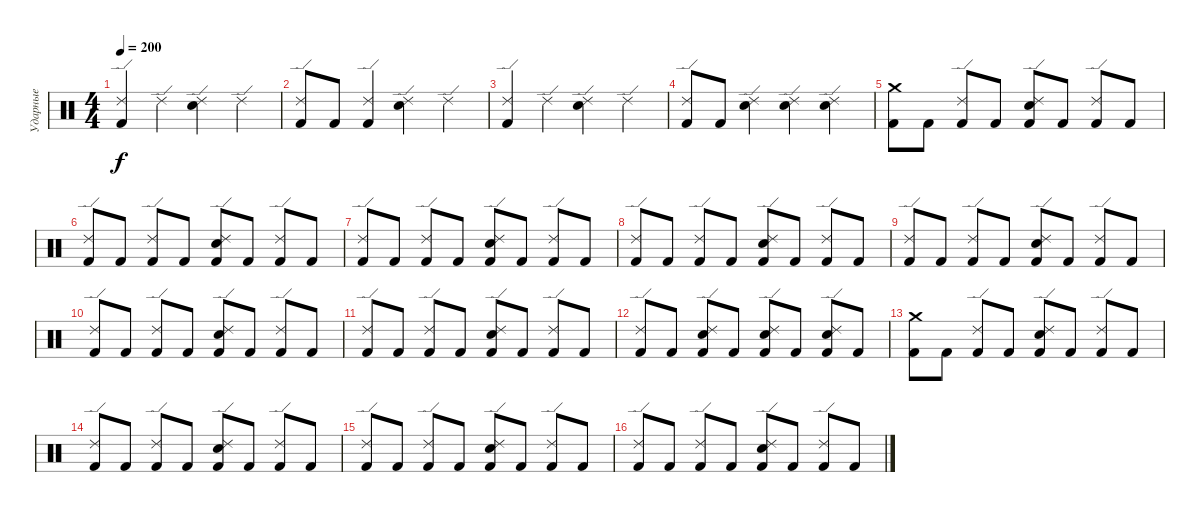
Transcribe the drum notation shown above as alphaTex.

\track ("Ударные" "Ударные") {instrument percussion}
\staff {score}
\articulation defaults
\ts (4 4)
\tempo 200
\clef neutral
\ks c
("Ride (edge) 2" "Kick (hit) 2").4{dy f} "Ride (edge) 2".4 ("Ride (edge) 2" "Snare (hit) 2").4 "Ride (edge) 2".4 |
("Ride (edge) 2" "Kick (hit) 2").8 "Kick (hit) 2".8 ("Ride (edge) 2" "Kick (hit) 2").4 ("Ride (edge) 2" "Snare (hit) 2").4 "Ride (edge) 2".4 |
("Ride (edge) 2" "Kick (hit) 2").4 "Ride (edge) 2".4 ("Ride (edge) 2" "Snare (hit) 2").4 "Ride (edge) 2".4 |
("Ride (edge) 2" "Kick (hit) 2").8 "Kick (hit) 2".8 ("Ride (edge) 2" "Snare (hit) 2").4 ("Ride (edge) 2" "Snare (hit) 2").4 ("Ride (edge) 2" "Snare (hit) 2").4 |
("Crash medium (hit)" "Kick (hit) 2").8 "Kick (hit) 2".8 ("Ride (edge) 2" "Kick (hit) 2").8 "Kick (hit) 2".8 ("Ride (edge) 2" "Snare (hit) 2" "Kick (hit) 2").8 "Kick (hit) 2".8 ("Ride (edge) 2" "Kick (hit) 2").8 "Kick (hit) 2".8 |
("Ride (edge) 2" "Kick (hit) 2").8 "Kick (hit) 2".8 ("Ride (edge) 2" "Kick (hit) 2").8 "Kick (hit) 2".8 ("Ride (edge) 2" "Snare (hit) 2" "Kick (hit) 2").8 "Kick (hit) 2".8 ("Ride (edge) 2" "Kick (hit) 2").8 "Kick (hit) 2".8 |
("Ride (edge) 2" "Kick (hit) 2").8 "Kick (hit) 2".8 ("Ride (edge) 2" "Kick (hit) 2").8 "Kick (hit) 2".8 ("Ride (edge) 2" "Snare (hit) 2" "Kick (hit) 2").8 "Kick (hit) 2".8 ("Ride (edge) 2" "Kick (hit) 2").8 "Kick (hit) 2".8 |
("Ride (edge) 2" "Kick (hit) 2").8 "Kick (hit) 2".8 ("Ride (edge) 2" "Kick (hit) 2").8 "Kick (hit) 2".8 ("Ride (edge) 2" "Snare (hit) 2" "Kick (hit) 2").8 "Kick (hit) 2".8 ("Ride (edge) 2" "Kick (hit) 2").8 "Kick (hit) 2".8 |
("Ride (edge) 2" "Kick (hit) 2").8 "Kick (hit) 2".8 ("Ride (edge) 2" "Kick (hit) 2").8 "Kick (hit) 2".8 ("Ride (edge) 2" "Snare (hit) 2" "Kick (hit) 2").8 "Kick (hit) 2".8 ("Ride (edge) 2" "Kick (hit) 2").8 "Kick (hit) 2".8 |
("Ride (edge) 2" "Kick (hit) 2").8 "Kick (hit) 2".8 ("Ride (edge) 2" "Kick (hit) 2").8 "Kick (hit) 2".8 ("Ride (edge) 2" "Snare (hit) 2" "Kick (hit) 2").8 "Kick (hit) 2".8 ("Ride (edge) 2" "Kick (hit) 2").8 "Kick (hit) 2".8 |
("Ride (edge) 2" "Kick (hit) 2").8 "Kick (hit) 2".8 ("Ride (edge) 2" "Kick (hit) 2").8 "Kick (hit) 2".8 ("Ride (edge) 2" "Snare (hit) 2" "Kick (hit) 2").8 "Kick (hit) 2".8 ("Ride (edge) 2" "Kick (hit) 2").8 "Kick (hit) 2".8 |
("Ride (edge) 2" "Kick (hit) 2").8 "Kick (hit) 2".8 ("Ride (edge) 2" "Snare (hit) 2" "Kick (hit) 2").8 "Kick (hit) 2".8 ("Ride (edge) 2" "Snare (hit) 2" "Kick (hit) 2").8 "Kick (hit) 2".8 ("Ride (edge) 2" "Snare (hit) 2" "Kick (hit) 2").8 "Kick (hit) 2".8 |
("Crash medium (hit)" "Kick (hit) 2").8 "Kick (hit) 2".8 ("Ride (edge) 2" "Kick (hit) 2").8 "Kick (hit) 2".8 ("Ride (edge) 2" "Snare (hit) 2" "Kick (hit) 2").8 "Kick (hit) 2".8 ("Ride (edge) 2" "Kick (hit) 2").8 "Kick (hit) 2".8 |
("Ride (edge) 2" "Kick (hit) 2").8 "Kick (hit) 2".8 ("Ride (edge) 2" "Kick (hit) 2").8 "Kick (hit) 2".8 ("Ride (edge) 2" "Snare (hit) 2" "Kick (hit) 2").8 "Kick (hit) 2".8 ("Ride (edge) 2" "Kick (hit) 2").8 "Kick (hit) 2".8 |
("Ride (edge) 2" "Kick (hit) 2").8 "Kick (hit) 2".8 ("Ride (edge) 2" "Kick (hit) 2").8 "Kick (hit) 2".8 ("Ride (edge) 2" "Snare (hit) 2" "Kick (hit) 2").8 "Kick (hit) 2".8 ("Ride (edge) 2" "Kick (hit) 2").8 "Kick (hit) 2".8 |
("Ride (edge) 2" "Kick (hit) 2").8 "Kick (hit) 2".8 ("Ride (edge) 2" "Kick (hit) 2").8 "Kick (hit) 2".8 ("Ride (edge) 2" "Snare (hit) 2" "Kick (hit) 2").8 "Kick (hit) 2".8 ("Ride (edge) 2" "Kick (hit) 2").8 "Kick (hit) 2".8
